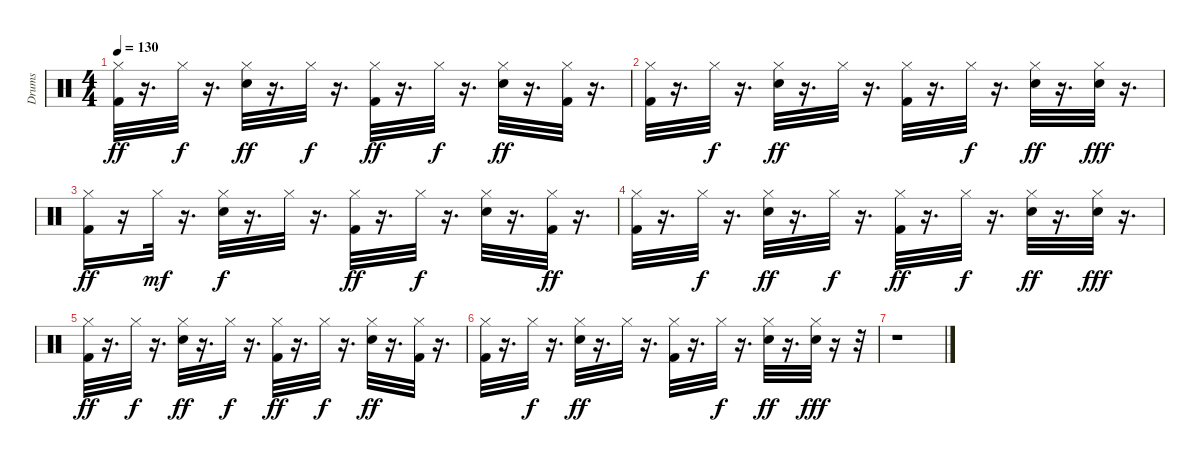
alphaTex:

\track ("Drums" "Drums") {instrument percussion}
\staff {score}
\articulation defaults
\ts (4 4)
\tempo 130
\clef neutral
\ks c
("Hi-Hat (closed)" "Kick (hit) 2").32{dy ff} r.16{d} "Hi-Hat (closed)".32{dy f} r.16{d} ("Hi-Hat (closed)" "Snare (hit) 2").32{dy ff} r.16{d} "Hi-Hat (closed)".32{dy f} r.16{d} ("Kick (hit) 2" "Hi-Hat (closed)").32{dy ff} r.16{d} "Hi-Hat (closed)".32{dy f} r.16{d} ("Hi-Hat (closed)" "Snare (hit) 2").32{dy ff} r.16{d} ("Kick (hit) 2" "Hi-Hat (closed)").32 r.16{d} |
("Kick (hit) 2" "Hi-Hat (closed)").32 r.16{d} "Hi-Hat (closed)".32{dy f} r.16{d} ("Hi-Hat (closed)" "Snare (hit) 2").32{dy ff} r.16{d} "Hi-Hat (closed)".32 r.16{d} ("Kick (hit) 2" "Hi-Hat (closed)").32 r.16{d} "Hi-Hat (closed)".32{dy f} r.16{d} ("Hi-Hat (closed)" "Snare (hit) 2").32{dy ff} r.16{d} ("Hi-Hat (closed)" "Hand Clap (hit)").32{dy fff} r.16{d} |
("Hi-Hat (closed)" "Kick (hit) 2").16{dy ff} r.16 "Hi-Hat (closed)".32{dy mf} r.16{d} ("Hi-Hat (closed)" "Snare (hit) 2").32{dy f} r.16{d} "Hi-Hat (closed)".32 r.16{d} ("Hi-Hat (closed)" "Kick (hit) 2").32{dy ff} r.16{d} "Hi-Hat (closed)".32{dy f} r.16{d} ("Hi-Hat (closed)" "Snare (hit) 2").32 r.16{d} ("Kick (hit) 2" "Hi-Hat (closed)").32{dy ff} r.16{d} |
("Kick (hit) 2" "Hi-Hat (closed)").32 r.16{d} "Hi-Hat (closed)".32{dy f} r.16{d} ("Hi-Hat (closed)" "Snare (hit) 2").32{dy ff} r.16{d} "Hi-Hat (closed)".32{dy f} r.16{d} ("Kick (hit) 2" "Hi-Hat (closed)").32{dy ff} r.16{d} "Hi-Hat (closed)".32{dy f} r.16{d} ("Snare (hit) 2" "Hi-Hat (closed)").32{dy ff} r.16{d} ("Hand Clap (hit)" "Hi-Hat (closed)").32{dy fff} r.16{d} |
("Hi-Hat (closed)" "Kick (hit) 2").32{dy ff} r.16{d} "Hi-Hat (closed)".32{dy f} r.16{d} ("Hi-Hat (closed)" "Snare (hit) 2").32{dy ff} r.16{d} "Hi-Hat (closed)".32{dy f} r.16{d} ("Kick (hit) 2" "Hi-Hat (closed)").32{dy ff} r.16{d} "Hi-Hat (closed)".32{dy f} r.16{d} ("Hi-Hat (closed)" "Snare (hit) 2").32{dy ff} r.16{d} ("Hi-Hat (closed)" "Kick (hit) 2").32 r.16{d} |
("Hi-Hat (closed)" "Kick (hit) 2").32 r.16{d} "Hi-Hat (closed)".32{dy f} r.16{d} ("Snare (hit) 2" "Hi-Hat (closed)").32{dy ff} r.16{d} "Hi-Hat (closed)".32 r.16{d} ("Kick (hit) 2" "Hi-Hat (closed)").32 r.16{d} "Hi-Hat (closed)".32{dy f} r.16{d} ("Hi-Hat (closed)" "Snare (hit) 2").32{dy ff} r.16{d} ("Hi-Hat (closed)" "Hand Clap (hit)").32{dy fff} r.16 r.32 |
r.1
